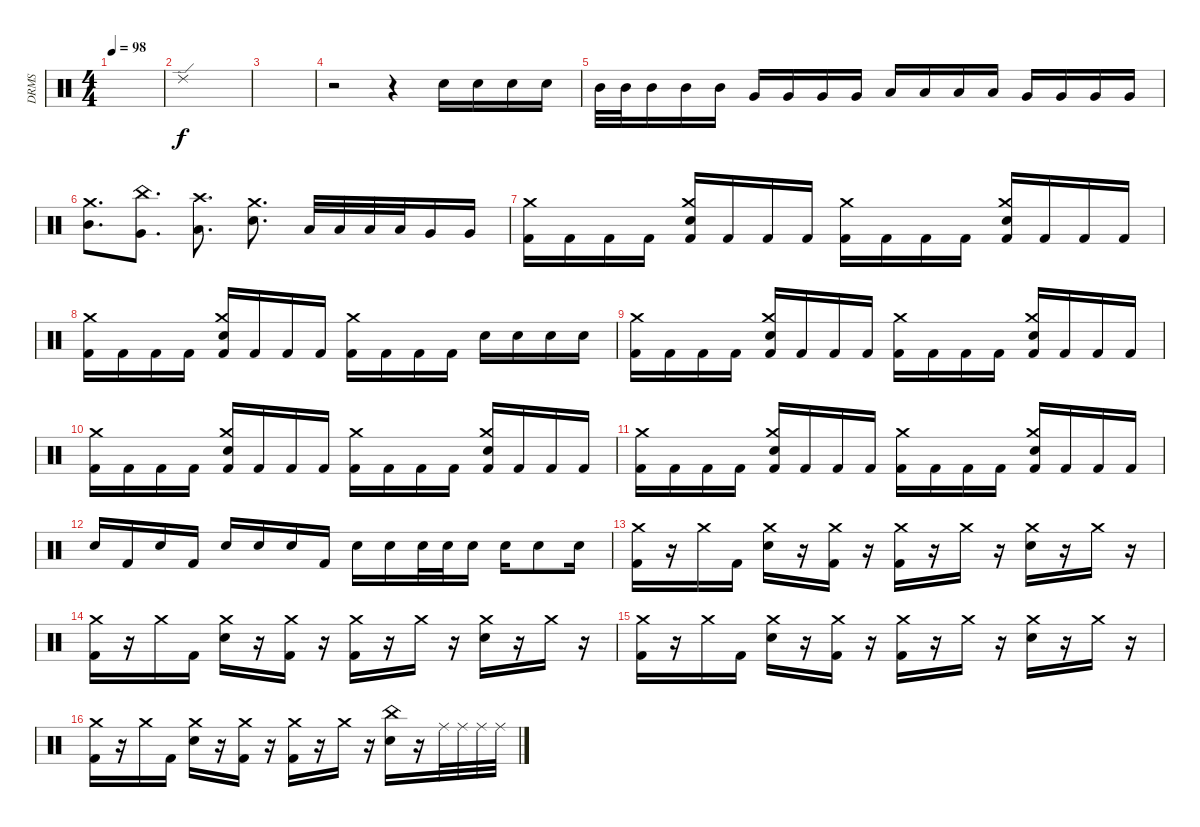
\track ("DRMS" "DRMS") {instrument percussion}
\staff {score}
\articulation defaults
\ts (4 4)
\tempo 98
\clef neutral
\ks c
|
"Ride (edge) 2".1 |
|
r.2 r.4 "Snare (hit) 2".16 "Snare (hit) 2".16 "Snare (hit) 2".16 "Snare (hit) 2".16 |
"Mid Tom (hit)".32 "Mid Tom (hit)".32 "Mid Tom (hit)".16 "Mid Tom (hit)".16 "Mid Tom (hit)".16 "Very Low Tom (hit)".16 "Very Low Tom (hit)".16 "Very Low Tom (hit)".16 "Very Low Tom (hit)".16 "Low Tom (hit)".16 "Low Tom (hit)".16 "Low Tom (hit)".16 "Low Tom (hit)".16 "Very Low Tom (hit)".16 "Very Low Tom (hit)".16 "Very Low Tom (hit)".16 "Very Low Tom (hit)".16 |
("Crash medium (hit)" "Mid Tom (hit)").8{d} ("China (hit)" "Very Low Tom (hit)").8{d} ("Crash high (hit)" "Low Tom (hit)").8{d} ("Crash medium (hit)" "Snare (hit) 2").8{d} "Low Tom (hit)".32 "Low Tom (hit)".32 "Low Tom (hit)".32 "Low Tom (hit)".32 "Very Low Tom (hit)".16 "Very Low Tom (hit)".16 |
("Crash medium (hit)" "Kick (hit) 2").16 "Kick (hit) 2".16 "Kick (hit) 2".16 "Kick (hit) 2".16 ("Crash medium (hit)" "Snare (hit) 2" "Kick (hit) 2").16 "Kick (hit) 2".16 "Kick (hit) 2".16 "Kick (hit) 2".16 ("Crash medium (hit)" "Kick (hit) 2").16 "Kick (hit) 2".16 "Kick (hit) 2".16 "Kick (hit) 2".16 ("Crash medium (hit)" "Snare (hit) 2" "Kick (hit) 2").16 "Kick (hit) 2".16 "Kick (hit) 2".16 "Kick (hit) 2".16 |
("Crash medium (hit)" "Kick (hit) 2").16 "Kick (hit) 2".16 "Kick (hit) 2".16 "Kick (hit) 2".16 ("Crash medium (hit)" "Snare (hit) 2" "Kick (hit) 2").16 "Kick (hit) 2".16 "Kick (hit) 2".16 "Kick (hit) 2".16 ("Crash medium (hit)" "Kick (hit) 2").16 "Kick (hit) 2".16 "Kick (hit) 2".16 "Kick (hit) 2".16 "Snare (hit) 2".16 "Snare (hit) 2".16 "Snare (hit) 2".16 "Snare (hit) 2".16 |
("Crash medium (hit)" "Kick (hit) 2").16 "Kick (hit) 2".16 "Kick (hit) 2".16 "Kick (hit) 2".16 ("Crash medium (hit)" "Snare (hit) 2" "Kick (hit) 2").16 "Kick (hit) 2".16 "Kick (hit) 2".16 "Kick (hit) 2".16 ("Crash medium (hit)" "Kick (hit) 2").16 "Kick (hit) 2".16 "Kick (hit) 2".16 "Kick (hit) 2".16 ("Crash medium (hit)" "Snare (hit) 2" "Kick (hit) 2").16 "Kick (hit) 2".16 "Kick (hit) 2".16 "Kick (hit) 2".16 |
("Crash medium (hit)" "Kick (hit) 2").16 "Kick (hit) 2".16 "Kick (hit) 2".16 "Kick (hit) 2".16 ("Crash medium (hit)" "Snare (hit) 2" "Kick (hit) 2").16 "Kick (hit) 2".16 "Kick (hit) 2".16 "Kick (hit) 2".16 ("Crash medium (hit)" "Kick (hit) 2").16 "Kick (hit) 2".16 "Kick (hit) 2".16 "Kick (hit) 2".16 ("Crash medium (hit)" "Snare (hit) 2" "Kick (hit) 2").16 "Kick (hit) 2".16 "Kick (hit) 2".16 "Kick (hit) 2".16 |
("Crash medium (hit)" "Kick (hit) 2").16 "Kick (hit) 2".16 "Kick (hit) 2".16 "Kick (hit) 2".16 ("Crash medium (hit)" "Snare (hit) 2" "Kick (hit) 2").16 "Kick (hit) 2".16 "Kick (hit) 2".16 "Kick (hit) 2".16 ("Crash medium (hit)" "Kick (hit) 2").16 "Kick (hit) 2".16 "Kick (hit) 2".16 "Kick (hit) 2".16 ("Crash medium (hit)" "Snare (hit) 2" "Kick (hit) 2").16 "Kick (hit) 2".16 "Kick (hit) 2".16 "Kick (hit) 2".16 |
"Snare (hit) 2".16 "Kick (hit) 2".16 "Snare (hit) 2".16 "Kick (hit) 2".16 "Snare (hit) 2".16 "Snare (hit) 2".16 "Snare (hit) 2".16 "Kick (hit) 2".16 "Snare (hit) 2".16 "Snare (hit) 2".16 "Snare (hit) 2".32 "Snare (hit) 2".32 "Snare (hit) 2".16 "Snare (hit) 2".16 "Snare (hit) 2".8 "Snare (hit) 2".16 |
("Crash medium (hit)" "Kick (hit) 2").16 r.16 "Crash medium (hit)".16 "Kick (hit) 2".16 ("Crash medium (hit)" "Snare (hit) 2").16 r.16 ("Crash medium (hit)" "Kick (hit) 2").16 r.16 ("Crash medium (hit)" "Kick (hit) 2").16 r.16 "Crash medium (hit)".16 r.16 ("Crash medium (hit)" "Snare (hit) 2").16 r.16 "Crash medium (hit)".16 r.16 |
("Crash medium (hit)" "Kick (hit) 2").16 r.16 "Crash medium (hit)".16 "Kick (hit) 2".16 ("Crash medium (hit)" "Snare (hit) 2").16 r.16 ("Crash medium (hit)" "Kick (hit) 2").16 r.16 ("Crash medium (hit)" "Kick (hit) 2").16 r.16 "Crash medium (hit)".16 r.16 ("Crash medium (hit)" "Snare (hit) 2").16 r.16 "Crash medium (hit)".16 r.16 |
("Crash medium (hit)" "Kick (hit) 2").16 r.16 "Crash medium (hit)".16 "Kick (hit) 2".16 ("Crash medium (hit)" "Snare (hit) 2").16 r.16 ("Crash medium (hit)" "Kick (hit) 2").16 r.16 ("Crash medium (hit)" "Kick (hit) 2").16 r.16 "Crash medium (hit)".16 r.16 ("Crash medium (hit)" "Snare (hit) 2").16 r.16 "Crash medium (hit)".16 r.16 |
("Crash medium (hit)" "Kick (hit) 2").16 r.16 "Crash medium (hit)".16 "Kick (hit) 2".16 ("Crash medium (hit)" "Snare (hit) 2").16 r.16 ("Crash medium (hit)" "Kick (hit) 2").16 r.16 ("Crash medium (hit)" "Kick (hit) 2").16 r.16 "Crash medium (hit)".16 r.16 ("China (hit)" "Snare (hit) 2").16 r.16 "Ride (middle)".32 "Ride (middle)".32 "Ride (middle)".32 "Ride (middle)".32
